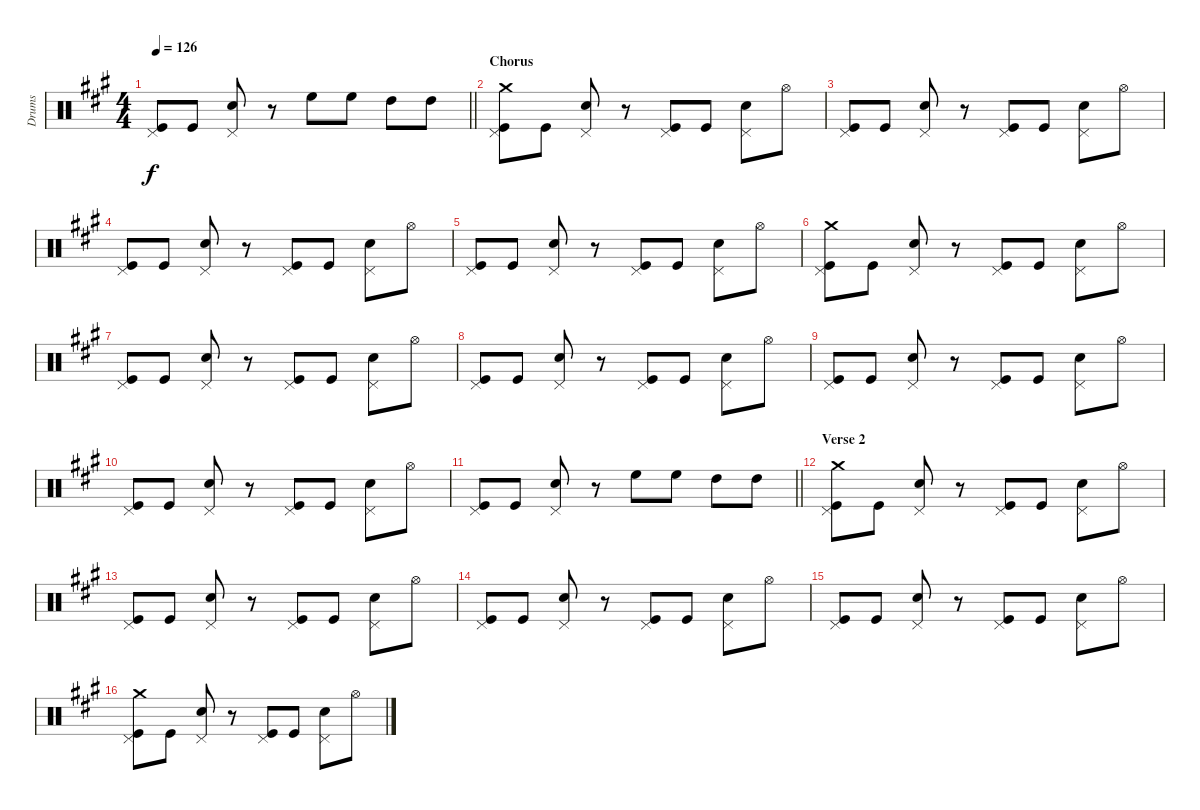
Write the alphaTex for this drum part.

\track ("Drums" "Drums") {instrument percussion}
\staff {score}
\articulation defaults
\ts (4 4)
\tempo 126
\clef neutral
\barLineRight lightlight
\ks a
("Pedal Hi-Hat (hit)" "Kick (hit)").8{dy f} "Kick (hit)".8 ("Pedal Hi-Hat (hit)" "Snare (hit) 2").8 r.8 "High Floor Tom (hit)".8 "High Floor Tom (hit)".8 "High Tom (hit)".8 "High Tom (hit)".8 |
\section ("" "Chorus")
("Crash medium (hit)" "Pedal Hi-Hat (hit)" "Kick (hit)").8 "Kick (hit)".8 ("Pedal Hi-Hat (hit)" "Snare (hit) 2").8 r.8 ("Pedal Hi-Hat (hit)" "Kick (hit)").8 "Kick (hit)".8 ("Pedal Hi-Hat (hit)" "Snare (hit) 2").8 "Hi-Hat (open)".8 |
("Pedal Hi-Hat (hit)" "Kick (hit)").8 "Kick (hit)".8 ("Pedal Hi-Hat (hit)" "Snare (hit) 2").8 r.8 ("Pedal Hi-Hat (hit)" "Kick (hit)").8 "Kick (hit)".8 ("Pedal Hi-Hat (hit)" "Snare (hit) 2").8 "Hi-Hat (open)".8 |
("Pedal Hi-Hat (hit)" "Kick (hit)").8 "Kick (hit)".8 ("Pedal Hi-Hat (hit)" "Snare (hit) 2").8 r.8 ("Pedal Hi-Hat (hit)" "Kick (hit)").8 "Kick (hit)".8 ("Pedal Hi-Hat (hit)" "Snare (hit) 2").8 "Hi-Hat (open)".8 |
("Pedal Hi-Hat (hit)" "Kick (hit)").8 "Kick (hit)".8 ("Pedal Hi-Hat (hit)" "Snare (hit) 2").8 r.8 ("Pedal Hi-Hat (hit)" "Kick (hit)").8 "Kick (hit)".8 ("Pedal Hi-Hat (hit)" "Snare (hit) 2").8 "Hi-Hat (open)".8 |
("Crash medium (hit)" "Pedal Hi-Hat (hit)" "Kick (hit)").8 "Kick (hit)".8 ("Pedal Hi-Hat (hit)" "Snare (hit) 2").8 r.8 ("Pedal Hi-Hat (hit)" "Kick (hit)").8 "Kick (hit)".8 ("Pedal Hi-Hat (hit)" "Snare (hit) 2").8 "Hi-Hat (open)".8 |
("Pedal Hi-Hat (hit)" "Kick (hit)").8 "Kick (hit)".8 ("Pedal Hi-Hat (hit)" "Snare (hit) 2").8 r.8 ("Pedal Hi-Hat (hit)" "Kick (hit)").8 "Kick (hit)".8 ("Pedal Hi-Hat (hit)" "Snare (hit) 2").8 "Hi-Hat (open)".8 |
("Pedal Hi-Hat (hit)" "Kick (hit)").8 "Kick (hit)".8 ("Pedal Hi-Hat (hit)" "Snare (hit) 2").8 r.8 ("Pedal Hi-Hat (hit)" "Kick (hit)").8 "Kick (hit)".8 ("Pedal Hi-Hat (hit)" "Snare (hit) 2").8 "Hi-Hat (open)".8 |
("Pedal Hi-Hat (hit)" "Kick (hit)").8 "Kick (hit)".8 ("Pedal Hi-Hat (hit)" "Snare (hit) 2").8 r.8 ("Pedal Hi-Hat (hit)" "Kick (hit)").8 "Kick (hit)".8 ("Pedal Hi-Hat (hit)" "Snare (hit) 2").8 "Hi-Hat (open)".8 |
("Pedal Hi-Hat (hit)" "Kick (hit)").8 "Kick (hit)".8 ("Pedal Hi-Hat (hit)" "Snare (hit) 2").8 r.8 ("Pedal Hi-Hat (hit)" "Kick (hit)").8 "Kick (hit)".8 ("Pedal Hi-Hat (hit)" "Snare (hit) 2").8 "Hi-Hat (open)".8 |
\barLineRight lightlight
("Pedal Hi-Hat (hit)" "Kick (hit)").8 "Kick (hit)".8 ("Pedal Hi-Hat (hit)" "Snare (hit) 2").8 r.8 "High Floor Tom (hit)".8 "High Floor Tom (hit)".8 "High Tom (hit)".8 "High Tom (hit)".8 |
\section ("" "Verse 2")
("Crash medium (hit)" "Pedal Hi-Hat (hit)" "Kick (hit)").8 "Kick (hit)".8 ("Pedal Hi-Hat (hit)" "Snare (hit) 2").8 r.8 ("Pedal Hi-Hat (hit)" "Kick (hit)").8 "Kick (hit)".8 ("Pedal Hi-Hat (hit)" "Snare (hit) 2").8 "Hi-Hat (open)".8 |
("Pedal Hi-Hat (hit)" "Kick (hit)").8 "Kick (hit)".8 ("Pedal Hi-Hat (hit)" "Snare (hit) 2").8 r.8 ("Pedal Hi-Hat (hit)" "Kick (hit)").8 "Kick (hit)".8 ("Pedal Hi-Hat (hit)" "Snare (hit) 2").8 "Hi-Hat (open)".8 |
("Pedal Hi-Hat (hit)" "Kick (hit)").8 "Kick (hit)".8 ("Pedal Hi-Hat (hit)" "Snare (hit) 2").8 r.8 ("Pedal Hi-Hat (hit)" "Kick (hit)").8 "Kick (hit)".8 ("Pedal Hi-Hat (hit)" "Snare (hit) 2").8 "Hi-Hat (open)".8 |
("Pedal Hi-Hat (hit)" "Kick (hit)").8 "Kick (hit)".8 ("Pedal Hi-Hat (hit)" "Snare (hit) 2").8 r.8 ("Pedal Hi-Hat (hit)" "Kick (hit)").8 "Kick (hit)".8 ("Pedal Hi-Hat (hit)" "Snare (hit) 2").8 "Hi-Hat (open)".8 |
("Crash medium (hit)" "Pedal Hi-Hat (hit)" "Kick (hit)").8 "Kick (hit)".8 ("Pedal Hi-Hat (hit)" "Snare (hit) 2").8 r.8 ("Pedal Hi-Hat (hit)" "Kick (hit)").8 "Kick (hit)".8 ("Pedal Hi-Hat (hit)" "Snare (hit) 2").8 "Hi-Hat (open)".8
